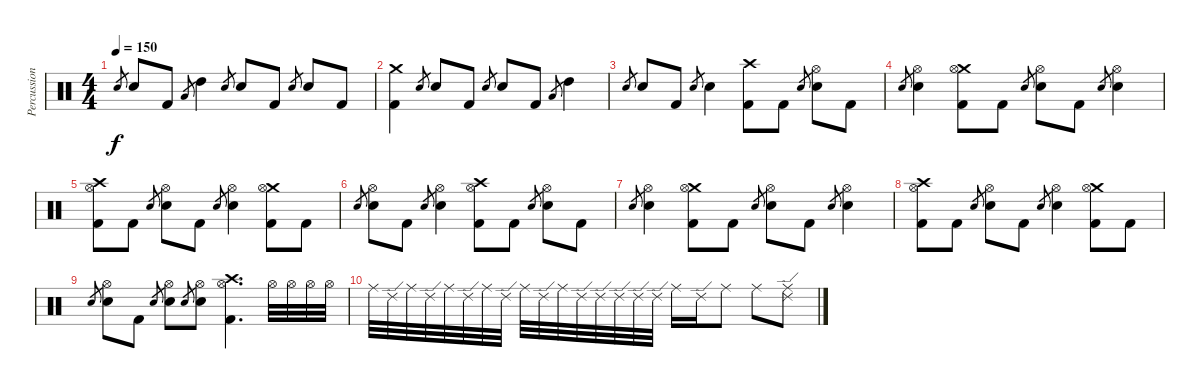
\track ("Percussion" "Percussion") {instrument percussion}
\staff {score}
\articulation defaults
\ts (4 4)
\tempo 150
\clef neutral
\ks c "Electric Snare (hit)".8{gr dy f} "Electric Snare (hit)".8 "Kick (hit) 2".8 "Low Tom (hit)".8{gr} "High Tom (hit)".4 "Electric Snare (hit)".8{gr} "Electric Snare (hit)".8 "Kick (hit) 2".8 "Electric Snare (hit)".8{gr} "Electric Snare (hit)".8 "Kick (hit) 2".8
|
("Crash medium (hit)" "Kick (hit) 2").4 "Electric Snare (hit)".8{gr} "Electric Snare (hit)".8 "Kick (hit) 2".8 "Electric Snare (hit)".8{gr} "Electric Snare (hit)".8 "Kick (hit) 2".8 "Low Tom (hit)".8{gr} "High Tom (hit)".4 |
"Electric Snare (hit)".8{gr} "Electric Snare (hit)".8 "Kick (hit) 2".8 "Electric Snare (hit)".8{gr} "Electric Snare (hit)".4 ("Crash high (hit)" "Kick (hit) 2").8 "Kick (hit) 2".8 "Electric Snare (hit)".8{gr} ("Hi-Hat (open)" "Electric Snare (hit)").8 "Kick (hit) 2".8 |
"Electric Snare (hit)".8{gr} ("Hi-Hat (open)" "Electric Snare (hit)").4 ("Crash medium (hit)" "Hi-Hat (open)" "Kick (hit) 2").8 "Kick (hit) 2".8 "Electric Snare (hit)".8{gr} ("Hi-Hat (open)" "Electric Snare (hit)").8 "Kick (hit) 2".8 "Electric Snare (hit)".8{gr} ("Hi-Hat (open)" "Electric Snare (hit)").4 |
("Crash high (hit)" "Hi-Hat (open)" "Kick (hit) 2").8 "Kick (hit) 2".8 "Electric Snare (hit)".8{gr} ("Hi-Hat (open)" "Electric Snare (hit)").8 "Kick (hit) 2".8 "Electric Snare (hit)".8{gr} ("Hi-Hat (open)" "Electric Snare (hit)").4 ("Crash medium (hit)" "Hi-Hat (open)" "Kick (hit) 2").8 "Kick (hit) 2".8 |
"Electric Snare (hit)".8{gr} ("Hi-Hat (open)" "Electric Snare (hit)").8 "Kick (hit) 2".8 "Electric Snare (hit)".8{gr} ("Hi-Hat (open)" "Electric Snare (hit)").4 ("Crash high (hit)" "Hi-Hat (open)" "Kick (hit) 2").8 "Kick (hit) 2".8 "Electric Snare (hit)".8{gr} ("Hi-Hat (open)" "Electric Snare (hit)").8 "Kick (hit) 2".8 |
"Electric Snare (hit)".8{gr} ("Hi-Hat (open)" "Electric Snare (hit)").4 ("Crash medium (hit)" "Hi-Hat (open)" "Kick (hit) 2").8 "Kick (hit) 2".8 "Electric Snare (hit)".8{gr} ("Hi-Hat (open)" "Electric Snare (hit)").8 "Kick (hit) 2".8 "Electric Snare (hit)".8{gr} ("Hi-Hat (open)" "Electric Snare (hit)").4 |
("Crash high (hit)" "Hi-Hat (open)" "Kick (hit) 2").8 "Kick (hit) 2".8 "Electric Snare (hit)".8{gr} ("Hi-Hat (open)" "Electric Snare (hit)").8 "Kick (hit) 2".8 "Electric Snare (hit)".8{gr} ("Hi-Hat (open)" "Electric Snare (hit)").4 ("Crash medium (hit)" "Hi-Hat (open)" "Kick (hit) 2").8 "Kick (hit) 2".8 |
"Electric Snare (hit)".8{gr} ("Hi-Hat (open)" "Electric Snare (hit)").8 "Kick (hit) 2".8 "Electric Snare (hit)".8{gr} ("Hi-Hat (open)" "Electric Snare (hit)").8 "Electric Snare (hit)".8{gr} ("Hi-Hat (open)" "Electric Snare (hit)").8 ("Crash high (hit)" "Hi-Hat (open)" "Kick (hit) 2").4{d} "Hi-Hat (open)".32 "Hi-Hat (open)".32 "Hi-Hat (open)".32 "Hi-Hat (open)".32 |
"Ride (middle)".32 "Ride (edge) 2".32 "Ride (middle)".32 "Ride (edge) 2".32 "Ride (middle)".32 "Ride (edge) 2".32 "Ride (middle)".32 "Ride (edge) 2".32 "Ride (middle)".32 "Ride (edge) 2".32 "Ride (middle)".32 "Ride (edge) 2".32 "Ride (edge) 2".32 "Ride (edge) 2".32 "Ride (edge) 2".32 "Ride (edge) 2".32 "Ride (middle)".16 "Ride (edge) 2".16 "Ride (middle)".8 "Ride (middle)".8 ("Ride (middle)" "Ride (edge) 2").8
